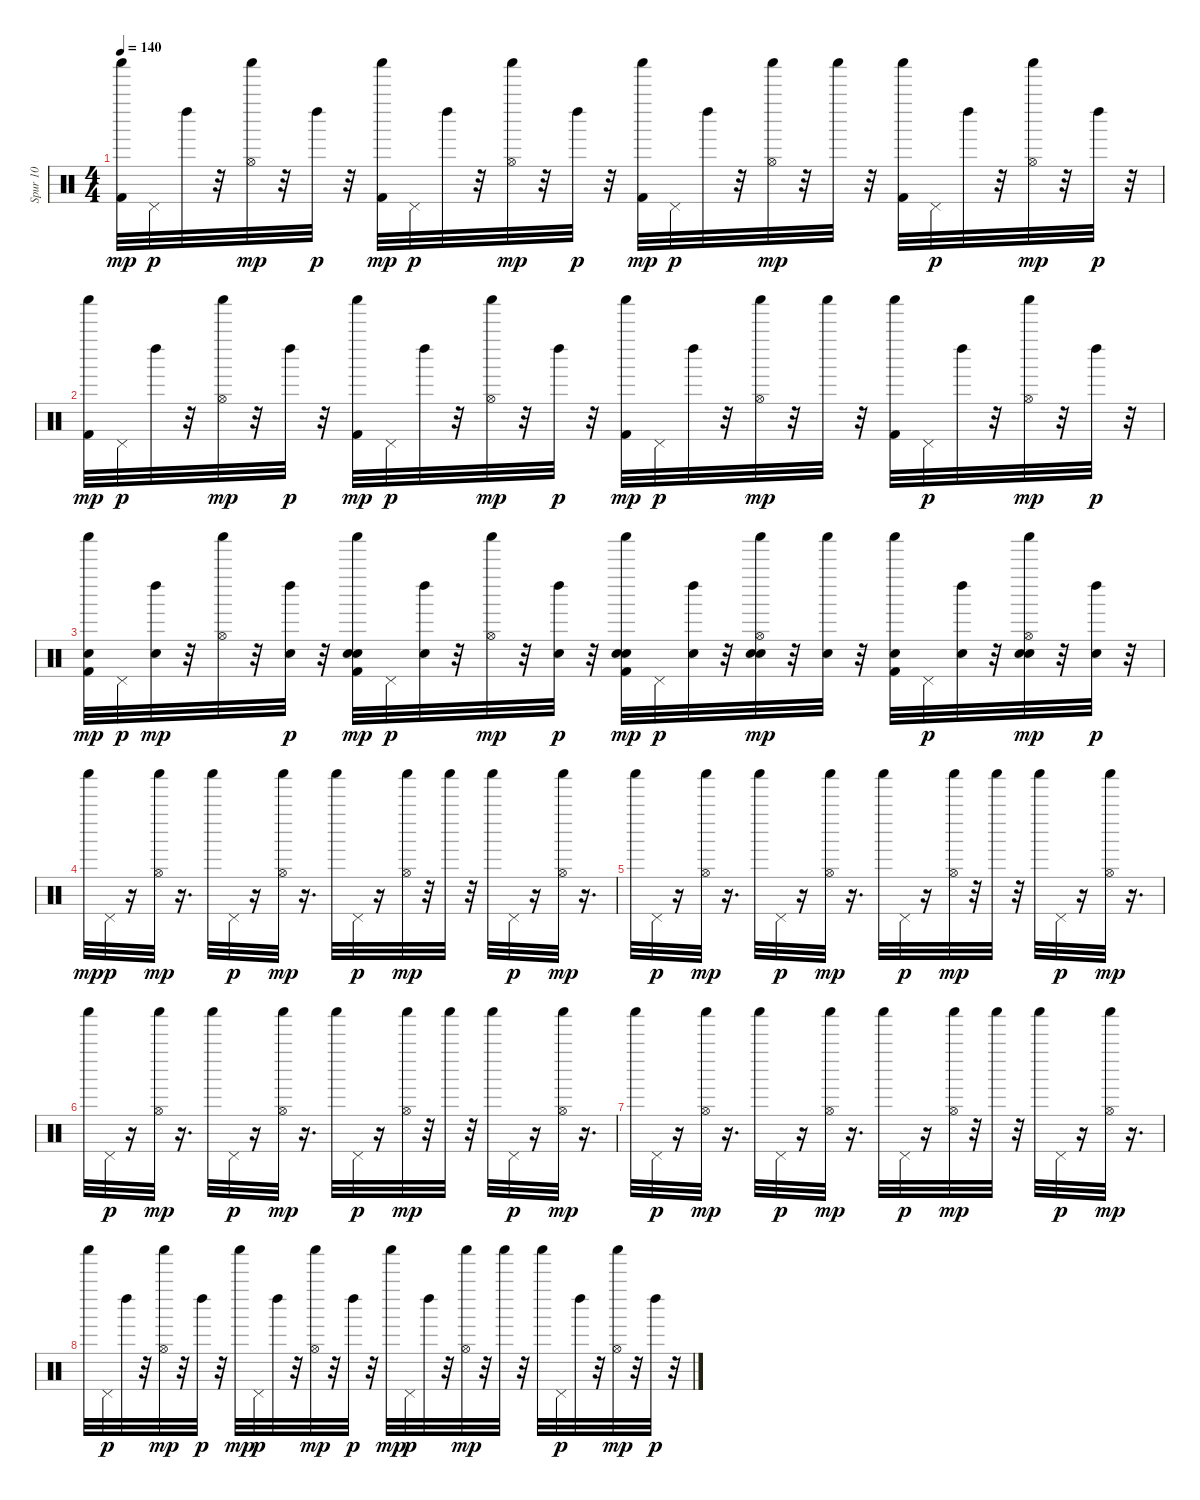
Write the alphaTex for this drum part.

\track ("Spur 10" "Spur 10") {instrument percussion}
\staff {score}
\articulation defaults
\ts (4 4)
\tempo 140
\clef neutral
\ks c
("Kick (hit) 2" "Shaker (hit)").32{dy mp} "Pedal Hi-Hat (hit)".32{dy p} "Left Maraca (hit)".32 r.32 ("Hi-Hat (open)" "Shaker (hit)").32{dy mp} r.32 "Left Maraca (hit)".32{dy p} r.32 ("Kick (hit) 2" "Shaker (hit)").32{dy mp} "Pedal Hi-Hat (hit)".32{dy p} "Left Maraca (hit)".32 r.32 ("Hi-Hat (open)" "Shaker (hit)").32{dy mp} r.32 "Left Maraca (hit)".32{dy p} r.32 ("Kick (hit) 2" "Shaker (hit)").32{dy mp} "Pedal Hi-Hat (hit)".32{dy p} "Left Maraca (hit)".32 r.32 ("Hi-Hat (open)" "Shaker (hit)").32{dy mp} r.32 "Shaker (hit)".32 r.32 ("Kick (hit) 2" "Shaker (hit)").32 "Pedal Hi-Hat (hit)".32{dy p} "Left Maraca (hit)".32 r.32 ("Hi-Hat (open)" "Shaker (hit)").32{dy mp} r.32 "Left Maraca (hit)".32{dy p} r.32 |
("Kick (hit) 2" "Shaker (hit)").32{dy mp} "Pedal Hi-Hat (hit)".32{dy p} "Left Maraca (hit)".32 r.32 ("Hi-Hat (open)" "Shaker (hit)").32{dy mp} r.32 "Left Maraca (hit)".32{dy p} r.32 ("Kick (hit) 2" "Shaker (hit)").32{dy mp} "Pedal Hi-Hat (hit)".32{dy p} "Left Maraca (hit)".32 r.32 ("Hi-Hat (open)" "Shaker (hit)").32{dy mp} r.32 "Left Maraca (hit)".32{dy p} r.32 ("Kick (hit) 2" "Shaker (hit)").32{dy mp} "Pedal Hi-Hat (hit)".32{dy p} "Left Maraca (hit)".32 r.32 ("Hi-Hat (open)" "Shaker (hit)").32{dy mp} r.32 "Shaker (hit)".32 r.32 ("Kick (hit) 2" "Shaker (hit)").32 "Pedal Hi-Hat (hit)".32{dy p} "Left Maraca (hit)".32 r.32 ("Hi-Hat (open)" "Shaker (hit)").32{dy mp} r.32 "Left Maraca (hit)".32{dy p} r.32 |
("Kick (hit) 2" "Electric Snare (hit)" "Shaker (hit)").32{dy mp} "Pedal Hi-Hat (hit)".32{dy p} ("Left Maraca (hit)" "Hand Clap (hit)").32{dy mp} r.32 ("Hi-Hat (open)" "Shaker (hit)").32 r.32 ("Hand Clap (hit)" "Left Maraca (hit)").32{dy p} r.32 ("Kick (hit) 2" "Hand Clap (hit)" "Electric Snare (hit)" "Shaker (hit)").32{dy mp} "Pedal Hi-Hat (hit)".32{dy p} ("Hand Clap (hit)" "Left Maraca (hit)").32 r.32 ("Hi-Hat (open)" "Shaker (hit)").32{dy mp} r.32 ("Hand Clap (hit)" "Left Maraca (hit)").32{dy p} r.32 ("Kick (hit) 2" "Hand Clap (hit)" "Electric Snare (hit)" "Shaker (hit)").32{dy mp} "Pedal Hi-Hat (hit)".32{dy p} ("Hand Clap (hit)" "Left Maraca (hit)").32 r.32 ("Hand Clap (hit)" "Electric Snare (hit)" "Hi-Hat (open)" "Shaker (hit)").32{dy mp} r.32 ("Hand Clap (hit)" "Shaker (hit)").32 r.32 ("Kick (hit) 2" "Hand Clap (hit)" "Shaker (hit)").32 "Pedal Hi-Hat (hit)".32{dy p} ("Hand Clap (hit)" "Left Maraca (hit)").32 r.32 ("Hand Clap (hit)" "Electric Snare (hit)" "Hi-Hat (open)" "Shaker (hit)").32{dy mp} r.32 ("Hand Clap (hit)" "Left Maraca (hit)").32{dy p} r.32 |
"Shaker (hit)".32{dy mp} "Pedal Hi-Hat (hit)".32{dy p} r.16 ("Hi-Hat (open)" "Shaker (hit)").32{dy mp} r.16{d} "Shaker (hit)".32 "Pedal Hi-Hat (hit)".32{dy p} r.16 ("Hi-Hat (open)" "Shaker (hit)").32{dy mp} r.16{d} "Shaker (hit)".32 "Pedal Hi-Hat (hit)".32{dy p} r.16 ("Hi-Hat (open)" "Shaker (hit)").32{dy mp} r.32 "Shaker (hit)".32 r.32 "Shaker (hit)".32 "Pedal Hi-Hat (hit)".32{dy p} r.16 ("Hi-Hat (open)" "Shaker (hit)").32{dy mp} r.16{d} |
"Shaker (hit)".32 "Pedal Hi-Hat (hit)".32{dy p} r.16 ("Hi-Hat (open)" "Shaker (hit)").32{dy mp} r.16{d} "Shaker (hit)".32 "Pedal Hi-Hat (hit)".32{dy p} r.16 ("Hi-Hat (open)" "Shaker (hit)").32{dy mp} r.16{d} "Shaker (hit)".32 "Pedal Hi-Hat (hit)".32{dy p} r.16 ("Hi-Hat (open)" "Shaker (hit)").32{dy mp} r.32 "Shaker (hit)".32 r.32 "Shaker (hit)".32 "Pedal Hi-Hat (hit)".32{dy p} r.16 ("Hi-Hat (open)" "Shaker (hit)").32{dy mp} r.16{d} |
"Shaker (hit)".32 "Pedal Hi-Hat (hit)".32{dy p} r.16 ("Hi-Hat (open)" "Shaker (hit)").32{dy mp} r.16{d} "Shaker (hit)".32 "Pedal Hi-Hat (hit)".32{dy p} r.16 ("Hi-Hat (open)" "Shaker (hit)").32{dy mp} r.16{d} "Shaker (hit)".32 "Pedal Hi-Hat (hit)".32{dy p} r.16 ("Hi-Hat (open)" "Shaker (hit)").32{dy mp} r.32 "Shaker (hit)".32 r.32 "Shaker (hit)".32 "Pedal Hi-Hat (hit)".32{dy p} r.16 ("Hi-Hat (open)" "Shaker (hit)").32{dy mp} r.16{d} |
"Shaker (hit)".32 "Pedal Hi-Hat (hit)".32{dy p} r.16 ("Hi-Hat (open)" "Shaker (hit)").32{dy mp} r.16{d} "Shaker (hit)".32 "Pedal Hi-Hat (hit)".32{dy p} r.16 ("Hi-Hat (open)" "Shaker (hit)").32{dy mp} r.16{d} "Shaker (hit)".32 "Pedal Hi-Hat (hit)".32{dy p} r.16 ("Hi-Hat (open)" "Shaker (hit)").32{dy mp} r.32 "Shaker (hit)".32 r.32 "Shaker (hit)".32 "Pedal Hi-Hat (hit)".32{dy p} r.16 ("Hi-Hat (open)" "Shaker (hit)").32{dy mp} r.16{d} |
"Shaker (hit)".32 "Pedal Hi-Hat (hit)".32{dy p} "Left Maraca (hit)".32 r.32 ("Hi-Hat (open)" "Shaker (hit)").32{dy mp} r.32 "Left Maraca (hit)".32{dy p} r.32 "Shaker (hit)".32{dy mp} "Pedal Hi-Hat (hit)".32{dy p} "Left Maraca (hit)".32 r.32 ("Hi-Hat (open)" "Shaker (hit)").32{dy mp} r.32 "Left Maraca (hit)".32{dy p} r.32 "Shaker (hit)".32{dy mp} "Pedal Hi-Hat (hit)".32{dy p} "Left Maraca (hit)".32 r.32 ("Hi-Hat (open)" "Shaker (hit)").32{dy mp} r.32 "Shaker (hit)".32 r.32 "Shaker (hit)".32 "Pedal Hi-Hat (hit)".32{dy p} "Left Maraca (hit)".32 r.32 ("Hi-Hat (open)" "Shaker (hit)").32{dy mp} r.32 "Left Maraca (hit)".32{dy p} r.32
